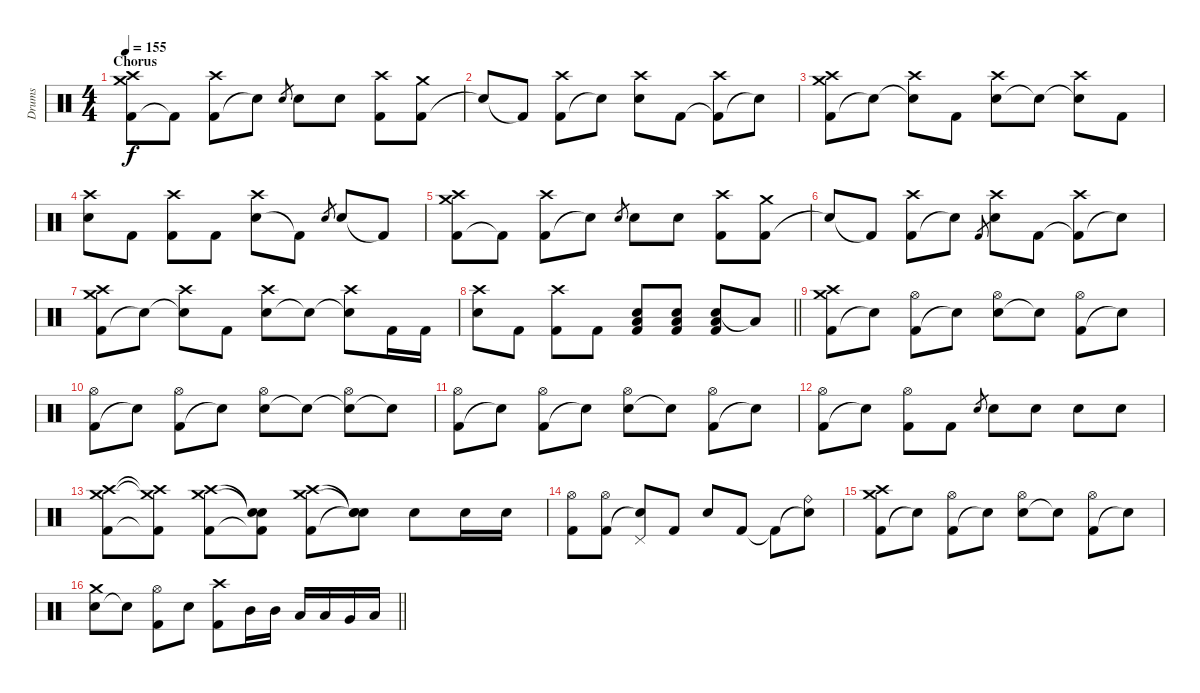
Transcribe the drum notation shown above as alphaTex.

\track ("Drums" "Drums") {instrument percussion}
\staff {score}
\articulation defaults
\ts (4 4)
\section ("" "Chorus")
\tempo 155
\clef neutral
\ks c
("Kick (hit) 2" "Crash high (hit)" "Crash medium (hit)").8{dy f} "Kick (hit) 2"{t}.8 ("Kick (hit) 2" "Crash high (hit)").8 "Electric Snare (hit)"{t}.8 "Electric Snare (hit)".8{gr} "Electric Snare (hit)".8 "Electric Snare (hit)".8 ("Kick (hit) 2" "Crash high (hit)").8 ("Kick (hit) 2" "Crash medium (hit)").8 |
"Snare (hit)"{t}.8 "Kick (hit) 2"{t}.8 ("Kick (hit) 2" "Crash high (hit)").8 "Snare (hit)"{t}.8 ("Electric Snare (hit)" "Crash high (hit)").8 "Kick (hit) 2".8 ("Kick (hit) 2"{t} "Crash high (hit)").8 "Snare (hit)"{t}.8 |
("Kick (hit) 2" "Crash high (hit)" "Crash medium (hit)").8 "Snare (hit)"{t}.8 ("Snare (hit)"{t} "Crash high (hit)").8 "Kick (hit) 2".8 ("Electric Snare (hit)" "Crash high (hit)").8 "Snare (hit)"{t}.8 ("Snare (hit)"{t} "Crash high (hit)").8 "Kick (hit) 2".8 |
("Electric Snare (hit)" "Crash high (hit)").8 "Kick (hit) 2".8 ("Kick (hit) 2" "Crash high (hit)").8 "Kick (hit) 2".8 ("Electric Snare (hit)" "Crash high (hit)").8 "Kick (hit) 2"{t}.8 "Electric Snare (hit)".8{gr} "Electric Snare (hit)".8 "Kick (hit) 2"{t}.8 |
("Kick (hit) 2" "Crash high (hit)" "Crash medium (hit)").8 "Kick (hit) 2"{t}.8 ("Kick (hit) 2" "Crash high (hit)").8 "Electric Snare (hit)"{t}.8 "Electric Snare (hit)".8{gr} "Electric Snare (hit)".8 "Electric Snare (hit)".8 ("Kick (hit) 2" "Crash high (hit)").8 ("Kick (hit) 2" "Crash medium (hit)").8 |
"Snare (hit)"{t}.8 "Kick (hit) 2"{t}.8 ("Kick (hit) 2" "Crash high (hit)").8 "Snare (hit)"{t}.8 "Kick (hit) 2".8{gr} ("Electric Snare (hit)" "Crash high (hit)").8 "Kick (hit) 2".8 ("Kick (hit) 2"{t} "Crash high (hit)").8 "Snare (hit)"{t}.8 |
("Kick (hit) 2" "Crash high (hit)" "Crash medium (hit)").8 "Snare (hit)"{t}.8 ("Snare (hit)"{t} "Crash high (hit)").8 "Kick (hit) 2".8 ("Electric Snare (hit)" "Crash high (hit)").8 "Snare (hit)"{t}.8 ("Snare (hit)"{t} "Crash high (hit)").8 "Kick (hit) 2".16 "Kick (hit) 2".16 |
\barLineRight lightlight
("Electric Snare (hit)" "Crash high (hit)").8 "Kick (hit) 2".8 ("Kick (hit) 2" "Crash high (hit)").8 "Kick (hit) 2".8 ("Electric Snare (hit)" "Low Floor Tom (hit)" "Kick (hit) 2").8 ("Electric Snare (hit)" "Low Floor Tom (hit)" "Kick (hit) 2").8 ("Electric Snare (hit)" "Low Floor Tom (hit)" "Kick (hit) 2").8 "Low Floor Tom (hit)"{t}.8 |
("Kick (hit) 2" "Crash medium (hit)" "Crash high (hit)").8 "Snare (hit)"{t}.8 ("Kick (hit) 2" "Hi-Hat (open)").8 "Snare (hit)"{t}.8 ("Electric Snare (hit)" "Hi-Hat (open)").8 "Snare (hit)"{t}.8 ("Kick (hit) 2" "Hi-Hat (open)").8 "Snare (hit)"{t}.8 |
("Kick (hit) 2" "Hi-Hat (open)").8 "Snare (hit)"{t}.8 ("Kick (hit) 2" "Hi-Hat (open)").8 "Snare (hit)"{t}.8 ("Electric Snare (hit)" "Hi-Hat (open)").8 "Snare (hit)"{t}.8 ("Snare (hit)"{t} "Hi-Hat (open)").8 "Snare (hit)"{t}.8 |
("Kick (hit) 2" "Hi-Hat (open)").8 "Snare (hit)"{t}.8 ("Kick (hit) 2" "Hi-Hat (open)").8 "Snare (hit)"{t}.8 ("Electric Snare (hit)" "Hi-Hat (open)").8 "Snare (hit)"{t}.8 ("Kick (hit) 2" "Hi-Hat (open)").8 "Snare (hit)"{t}.8 |
("Kick (hit) 2" "Hi-Hat (open)").8 "Snare (hit)"{t}.8 ("Kick (hit) 2" "Hi-Hat (open)").8 "Kick (hit) 2".8 "Electric Snare (hit)".8{gr} "Electric Snare (hit)".8 "Electric Snare (hit)".8 "Electric Snare (hit)".8 "Electric Snare (hit)".8 |
("Kick (hit) 2" "Crash high (hit)" "Crash medium (hit)").8 ("Kick (hit) 2"{t} "Crash high (hit)"{t} "Crash medium (hit)"{t}).8 ("Kick (hit) 2" "Crash high (hit)" "Crash medium (hit)").8 ("Kick (hit) 2"{t} "Snare (hit)"{t} "Snare (hit)"{t}).8 ("Kick (hit) 2" "Crash high (hit)" "Crash medium (hit)").8 ("Snare (hit)"{t} "Snare (hit)"{t} "Snare (hit)"{t}).8 "Electric Snare (hit)".8 "Electric Snare (hit)".16 "Electric Snare (hit)".16 |
("Kick (hit) 2" "Hi-Hat (open)").8 ("Kick (hit) 2" "Hi-Hat (open)").8 ("Snare (hit)"{t} "Pedal Hi-Hat (hit)").8 "Kick (hit) 2".8 "Electric Snare (hit)".8 "Kick (hit) 2".8 "Kick (hit) 2"{t}.8 ("Snare (hit)"{t} "Ride (bell)").8 |
("Kick (hit) 2" "Crash medium (hit)" "Crash high (hit)").8 "Snare (hit)"{t}.8 ("Kick (hit) 2" "Hi-Hat (open)").8 "Snare (hit)"{t}.8 ("Electric Snare (hit)" "Hi-Hat (open)").8 "Snare (hit)"{t}.8 ("Kick (hit) 2" "Hi-Hat (open)").8 "Snare (hit)"{t}.8 |
\barLineRight lightlight
("Electric Snare (hit)" "Crash medium (hit)").8 "Snare (hit)"{t}.8 ("Kick (hit) 2" "Hi-Hat (open)").8 "Electric Snare (hit)".8 ("Kick (hit) 2" "Crash high (hit)").8 "Mid Tom (hit)".16 "Mid Tom (hit)".16 "Low Tom (hit)".16 "Low Tom (hit)".16 "Very Low Tom (hit)".16 "Low Floor Tom (hit)".16
